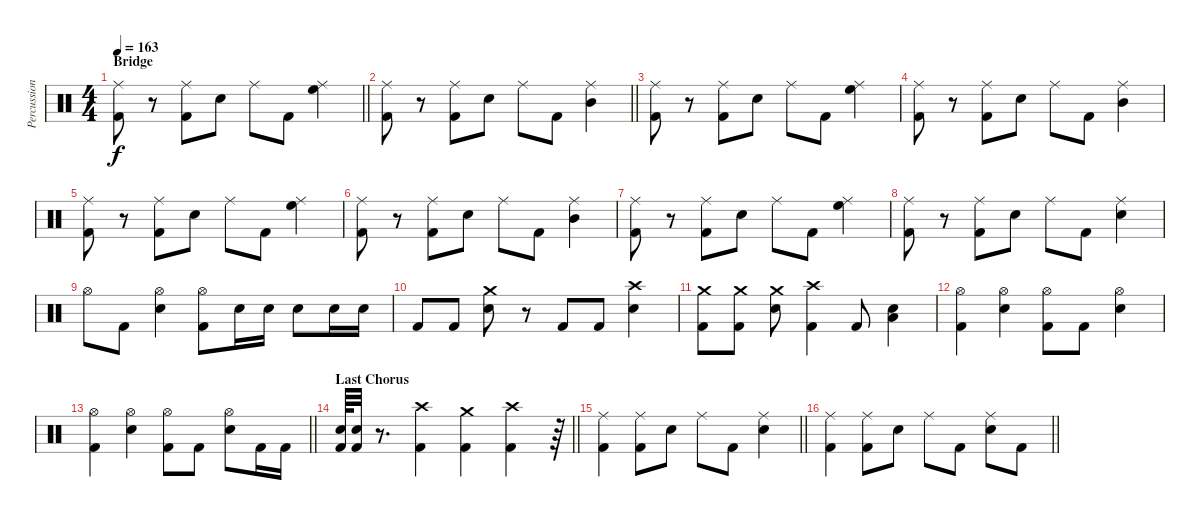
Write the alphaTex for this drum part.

\track ("Percussion" "Percussion") {instrument percussion}
\staff {score}
\articulation defaults
\ts (4 4)
\section ("" "Bridge")
\tempo 163
\clef neutral
\barLineRight lightlight
\ks c
("Ride (middle)" "Kick (hit) 2").8{dy f} r.8 ("Ride (middle)" "Kick (hit) 2").8 "Electric Snare (hit)".8 "Ride (middle)".8 "Kick (hit) 2".8 ("Ride (middle)" "High Floor Tom (hit)").4 |
\barLineRight lightlight
("Ride (middle)" "Kick (hit) 2").8 r.8 ("Ride (middle)" "Kick (hit) 2").8 "Electric Snare (hit)".8 "Ride (middle)".8 "Kick (hit) 2".8 ("Ride (middle)" "Mid Tom (hit)").4 |
("Ride (middle)" "Kick (hit) 2").8 r.8 ("Ride (middle)" "Kick (hit) 2").8 "Electric Snare (hit)".8 "Ride (middle)".8 "Kick (hit) 2".8 ("Ride (middle)" "High Floor Tom (hit)").4 |
("Ride (middle)" "Kick (hit) 2").8 r.8 ("Ride (middle)" "Kick (hit) 2").8 "Electric Snare (hit)".8 "Ride (middle)".8 "Kick (hit) 2".8 ("Ride (middle)" "Mid Tom (hit)").4 |
("Ride (middle)" "Kick (hit) 2").8 r.8 ("Ride (middle)" "Kick (hit) 2").8 "Electric Snare (hit)".8 "Ride (middle)".8 "Kick (hit) 2".8 ("Ride (middle)" "High Floor Tom (hit)").4 |
("Ride (middle)" "Kick (hit) 2").8 r.8 ("Ride (middle)" "Kick (hit) 2").8 "Electric Snare (hit)".8 "Ride (middle)".8 "Kick (hit) 2".8 ("Ride (middle)" "Mid Tom (hit)").4 |
("Ride (middle)" "Kick (hit) 2").8 r.8 ("Ride (middle)" "Kick (hit) 2").8 "Electric Snare (hit)".8 "Ride (middle)".8 "Kick (hit) 2".8 ("Ride (middle)" "High Floor Tom (hit)").4 |
("Ride (middle)" "Kick (hit) 2").8 r.8 ("Ride (middle)" "Kick (hit) 2").8 "Electric Snare (hit)".8 "Ride (middle)".8 "Kick (hit) 2".8 ("Ride (middle)" "Electric Snare (hit)").4 |
"Hi-Hat (open)".8 "Kick (hit) 2".8 ("Hi-Hat (open)" "Electric Snare (hit)").4 ("Hi-Hat (open)" "Kick (hit) 2").8 "Electric Snare (hit)".16 "Electric Snare (hit)".16 "Electric Snare (hit)".8 "Electric Snare (hit)".16 "Electric Snare (hit)".16 |
"Kick (hit) 2".8 "Kick (hit) 2".8 ("Crash medium (hit)" "Electric Snare (hit)").8 r.8 "Kick (hit) 2".8 "Kick (hit) 2".8 ("Crash high (hit)" "Electric Snare (hit)").4 |
("Crash medium (hit)" "Kick (hit) 2").8 ("Crash medium (hit)" "Kick (hit) 2").8 ("Crash medium (hit)" "Electric Snare (hit)").8 ("Crash high (hit)" "Kick (hit) 2").4 "Kick (hit) 2".8 ("Low Floor Tom (hit)" "Electric Snare (hit)").4 |
("Hi-Hat (open)" "Kick (hit) 2").4 ("Hi-Hat (open)" "Electric Snare (hit)").4 ("Hi-Hat (open)" "Kick (hit) 2").8 "Kick (hit) 2".8 ("Hi-Hat (open)" "Electric Snare (hit)").4 |
\barLineRight lightlight
("Hi-Hat (open)" "Kick (hit) 2").4 ("Hi-Hat (open)" "Electric Snare (hit)").4 ("Hi-Hat (open)" "Kick (hit) 2").8 "Kick (hit) 2".8 ("Hi-Hat (open)" "Electric Snare (hit)").8 "Kick (hit) 2".16 "Kick (hit) 2".16 |
\section ("" "Last Chorus")
\barLineRight lightlight
("Electric Snare (hit)" "Kick (hit) 2").64 ("Electric Snare (hit)" "Kick (hit) 2").32 r.8{d} ("Crash high (hit)" "Kick (hit) 2").4 ("Crash medium (hit)" "Kick (hit) 2").4 ("Crash high (hit)" "Kick (hit) 2").4 r.64 |
\barLineRight lightlight
("Ride (middle)" "Kick (hit) 2").4 ("Ride (middle)" "Kick (hit) 2").8 "Electric Snare (hit)".8 "Ride (middle)".8 "Kick (hit) 2".8 ("Ride (middle)" "Electric Snare (hit)").4 |
\barLineRight lightlight
("Ride (middle)" "Kick (hit) 2").4 ("Ride (middle)" "Kick (hit) 2").8 "Electric Snare (hit)".8 "Ride (middle)".8 "Kick (hit) 2".8 ("Electric Snare (hit)" "Ride (middle)").8 "Kick (hit) 2".8
